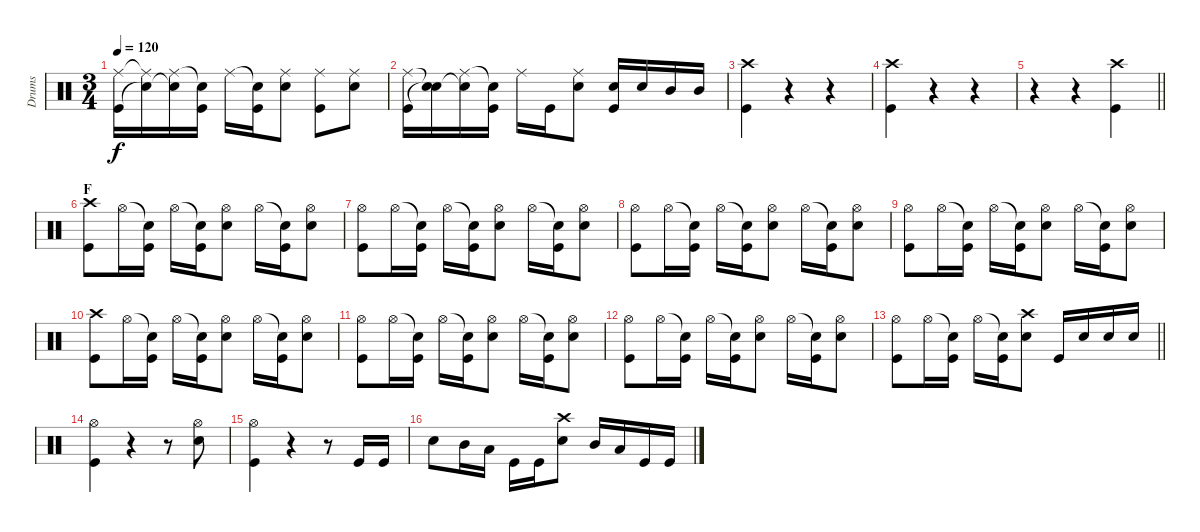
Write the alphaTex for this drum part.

\track ("Drums" "Drums") {instrument percussion}
\staff {score}
\articulation defaults
\ts (3 4)
\tempo 120
\clef neutral
\ks c
("Ride (middle)" "Kick (hit)").16{dy f} ("Ride (middle)"{t} "Snare (hit)"{t}).16 ("Ride (middle)" "Snare (hit)"{t}).16 ("Snare (hit)"{t} "Kick (hit)").16 "Ride (middle)".16 ("Snare (hit)"{t} "Kick (hit)").16 ("Ride (middle)" "Snare (hit) 2").8 ("Ride (middle)" "Kick (hit)").8 ("Ride (middle)" "Snare (hit) 2").8 |
("Ride (middle)" "Kick (hit)").16 ("Snare (hit)"{t} "Snare (hit)"{t}).16 ("Ride (middle)" "Snare (hit)"{t}).16 ("Snare (hit)"{t} "Kick (hit)").16 "Ride (middle)".16 "Kick (hit)".16 ("Ride (middle)" "Snare (hit) 2").8 ("Snare (hit) 2" "Kick (hit)").16 "Snare (hit) 2".16 "Mid Tom (hit)".16 "Mid Tom (hit)".16 |
("Crash high (hit)" "Kick (hit)").4 r.4 r.4 |
("Crash high (hit)" "Kick (hit)").4 r.4 r.4 |
\barLineRight lightlight
r.4 r.4 ("Crash high (hit)" "Kick (hit)").4 |
\section ("" "F")
("Crash high (hit)" "Kick (hit)").8 "Hi-Hat (open)".16 ("Snare (hit)"{t} "Kick (hit)").16 "Hi-Hat (open)".16 ("Snare (hit)"{t} "Kick (hit)").16 ("Hi-Hat (open)" "Snare (hit) 2").8 "Hi-Hat (open)".16 ("Snare (hit)"{t} "Kick (hit)").16 ("Hi-Hat (open)" "Snare (hit) 2").8 |
("Hi-Hat (open)" "Kick (hit)").8 "Hi-Hat (open)".16 ("Snare (hit)"{t} "Kick (hit)").16 "Hi-Hat (open)".16 ("Snare (hit)"{t} "Kick (hit)").16 ("Hi-Hat (open)" "Snare (hit) 2").8 "Hi-Hat (open)".16 ("Snare (hit)"{t} "Kick (hit)").16 ("Hi-Hat (open)" "Snare (hit) 2").8 |
("Hi-Hat (open)" "Kick (hit)").8 "Hi-Hat (open)".16 ("Snare (hit)"{t} "Kick (hit)").16 "Hi-Hat (open)".16 ("Snare (hit)"{t} "Kick (hit)").16 ("Hi-Hat (open)" "Snare (hit) 2").8 "Hi-Hat (open)".16 ("Snare (hit)"{t} "Kick (hit)").16 ("Hi-Hat (open)" "Snare (hit) 2").8 |
("Hi-Hat (open)" "Kick (hit)").8 "Hi-Hat (open)".16 ("Snare (hit)"{t} "Kick (hit)").16 "Hi-Hat (open)".16 ("Snare (hit)"{t} "Kick (hit)").16 ("Hi-Hat (open)" "Snare (hit) 2").8 "Hi-Hat (open)".16 ("Snare (hit)"{t} "Kick (hit)").16 ("Hi-Hat (open)" "Snare (hit) 2").8 |
("Crash high (hit)" "Kick (hit)").8 "Hi-Hat (open)".16 ("Snare (hit)"{t} "Kick (hit)").16 "Hi-Hat (open)".16 ("Snare (hit)"{t} "Kick (hit)").16 ("Hi-Hat (open)" "Snare (hit) 2").8 "Hi-Hat (open)".16 ("Snare (hit)"{t} "Kick (hit)").16 ("Hi-Hat (open)" "Snare (hit) 2").8 |
("Hi-Hat (open)" "Kick (hit)").8 "Hi-Hat (open)".16 ("Snare (hit)"{t} "Kick (hit)").16 "Hi-Hat (open)".16 ("Snare (hit)"{t} "Kick (hit)").16 ("Hi-Hat (open)" "Snare (hit) 2").8 "Hi-Hat (open)".16 ("Snare (hit)"{t} "Kick (hit)").16 ("Hi-Hat (open)" "Snare (hit) 2").8 |
("Hi-Hat (open)" "Kick (hit)").8 "Hi-Hat (open)".16 ("Snare (hit)"{t} "Kick (hit)").16 "Hi-Hat (open)".16 ("Snare (hit)"{t} "Kick (hit)").16 ("Hi-Hat (open)" "Snare (hit) 2").8 "Hi-Hat (open)".16 ("Snare (hit)"{t} "Kick (hit)").16 ("Hi-Hat (open)" "Snare (hit) 2").8 |
\barLineRight lightlight
("Hi-Hat (open)" "Kick (hit)").8 "Hi-Hat (open)".16 ("Snare (hit)"{t} "Kick (hit)").16 "Hi-Hat (open)".16 ("Snare (hit)"{t} "Kick (hit)").16 ("Crash high (hit)" "Snare (hit) 2").8 "Kick (hit)".16 "Snare (hit) 2".16 "Snare (hit) 2".16 "Snare (hit) 2".16 |
("Hi-Hat (open)" "Kick (hit)").4 r.4 r.8 ("Hi-Hat (open)" "Snare (hit) 2").8 |
("Hi-Hat (open)" "Kick (hit)").4 r.4 r.8 "Kick (hit)".16 "Kick (hit)".16 |
"Snare (hit) 2".8 "Mid Tom (hit)".16 "Low Tom (hit)".16 "Kick (hit)".16 "Kick (hit)".16 ("Crash high (hit)" "Snare (hit) 2").8 "Mid Tom (hit)".16 "Low Tom (hit)".16 "Kick (hit)".16 "Kick (hit)".16
